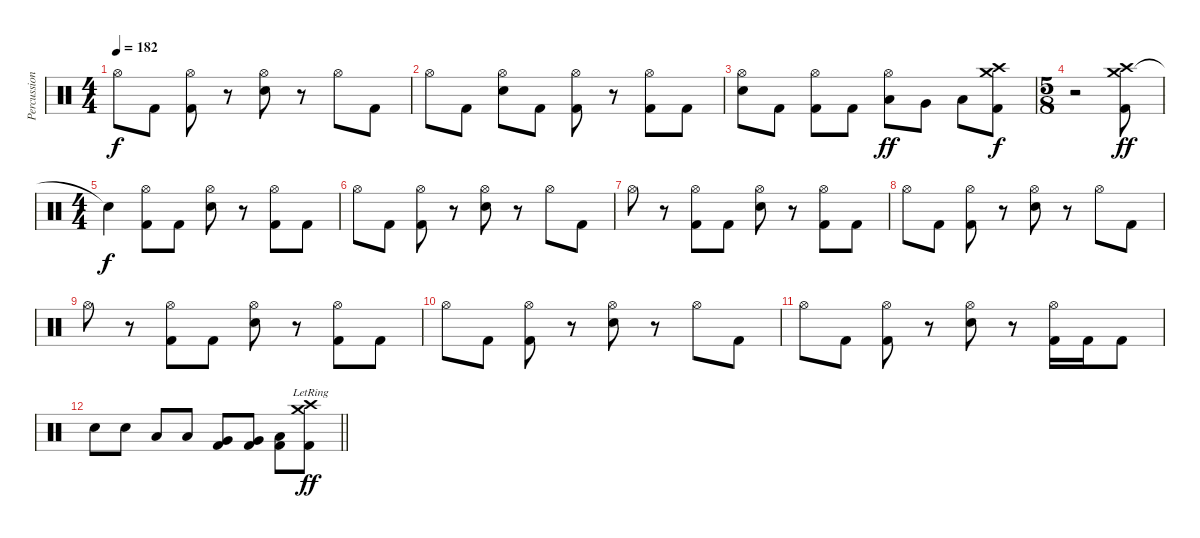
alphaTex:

\track ("Percussions" "Percussion") {instrument percussion}
\staff {score}
\articulation defaults
\ts (4 4)
\tempo 182
\clef neutral
\ks c "Hi-Hat (open)".8{dy f} "Kick (hit) 2".8
("Hi-Hat (open)" "Kick (hit) 2").8 r.8 ("Hi-Hat (open)" "Electric Snare (hit)").8 r.8 "Hi-Hat (open)".8 "Kick (hit) 2".8 |
"Hi-Hat (open)".8 "Kick (hit) 2".8 ("Hi-Hat (open)" "Electric Snare (hit)").8 "Kick (hit) 2".8 ("Hi-Hat (open)" "Kick (hit) 2").8 r.8 ("Hi-Hat (open)" "Kick (hit) 2").8 "Kick (hit) 2".8 |
("Hi-Hat (open)" "Electric Snare (hit)").8 "Kick (hit) 2".8 ("Hi-Hat (open)" "Kick (hit) 2").8 "Kick (hit) 2".8 ("Hi-Hat (open)" "Low Tom (hit)").8{dy ff} "Very Low Tom (hit)".8 "Low Floor Tom (hit)".8 ("Crash high (hit)" "Crash medium (hit)" "Kick (hit) 2").8{dy f} |
\ts (5 8)
r.2 ("Crash medium (hit)" "Crash high (hit)" "Kick (hit) 2").8{dy ff} |
\ts (4 4)
"Snare (hit)"{t}.4{dy f} ("Hi-Hat (open)" "Kick (hit) 2").8 "Kick (hit) 2".8 ("Hi-Hat (open)" "Electric Snare (hit)").8 r.8 ("Hi-Hat (open)" "Kick (hit) 2").8 "Kick (hit) 2".8 |
"Hi-Hat (open)".8 "Kick (hit) 2".8 ("Hi-Hat (open)" "Kick (hit) 2").8 r.8 ("Hi-Hat (open)" "Electric Snare (hit)").8 r.8 "Hi-Hat (open)".8 "Kick (hit) 2".8 |
"Hi-Hat (open)".8 r.8 ("Hi-Hat (open)" "Kick (hit) 2").8 "Kick (hit) 2".8 ("Hi-Hat (open)" "Electric Snare (hit)").8 r.8 ("Hi-Hat (open)" "Kick (hit) 2").8 "Kick (hit) 2".8 |
"Hi-Hat (open)".8 "Kick (hit) 2".8 ("Hi-Hat (open)" "Kick (hit) 2").8 r.8 ("Hi-Hat (open)" "Electric Snare (hit)").8 r.8 "Hi-Hat (open)".8 "Kick (hit) 2".8 |
"Hi-Hat (open)".8 r.8 ("Hi-Hat (open)" "Kick (hit) 2").8 "Kick (hit) 2".8 ("Hi-Hat (open)" "Electric Snare (hit)").8 r.8 ("Hi-Hat (open)" "Kick (hit) 2").8 "Kick (hit) 2".8 |
"Hi-Hat (open)".8 "Kick (hit) 2".8 ("Hi-Hat (open)" "Kick (hit) 2").8 r.8 ("Hi-Hat (open)" "Electric Snare (hit)").8 r.8 "Hi-Hat (open)".8 "Kick (hit) 2".8 |
"Hi-Hat (open)".8 "Kick (hit) 2".8 ("Hi-Hat (open)" "Kick (hit) 2").8 r.8 ("Hi-Hat (open)" "Electric Snare (hit)").8 r.8 ("Hi-Hat (open)" "Kick (hit) 2").16 "Kick (hit) 2".16 "Kick (hit) 2".8 |
\barLineRight lightlight "Electric Snare (hit)".8 "Electric Snare (hit)".8 "Low Tom (hit)".8 "Low Tom (hit)".8
("Very Low Tom (hit)" "Kick (hit) 2").8 ("Very Low Tom (hit)" "Kick (hit) 2").8 ("Low Floor Tom (hit)" "Kick (hit) 2").8 ("Crash high (hit)"{lr} "Crash medium (hit)"{lr} "Kick (hit) 2").8{dy ff}
